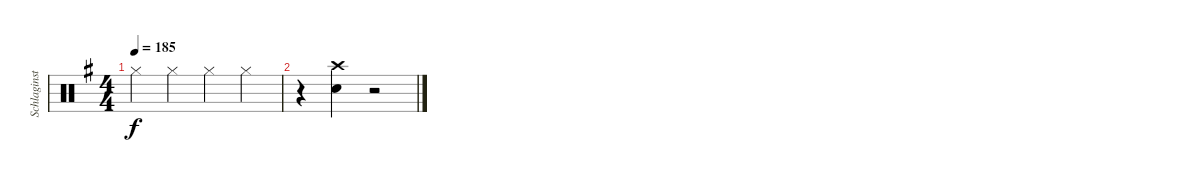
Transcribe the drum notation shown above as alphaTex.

\track ("Schlaginstrumente - Auswahl" "Schlaginst") {instrument percussion}
\staff {score}
\articulation defaults
\ts (4 4)
\tempo 185
\clef neutral
\ks eminor "Hi-Hat (closed)".4{dy f} "Hi-Hat (closed)".4 "Hi-Hat (closed)".4 "Hi-Hat (closed)".4
|
r.4 ("Snare (hit) 2" "Crash high (hit)").4 r.2
